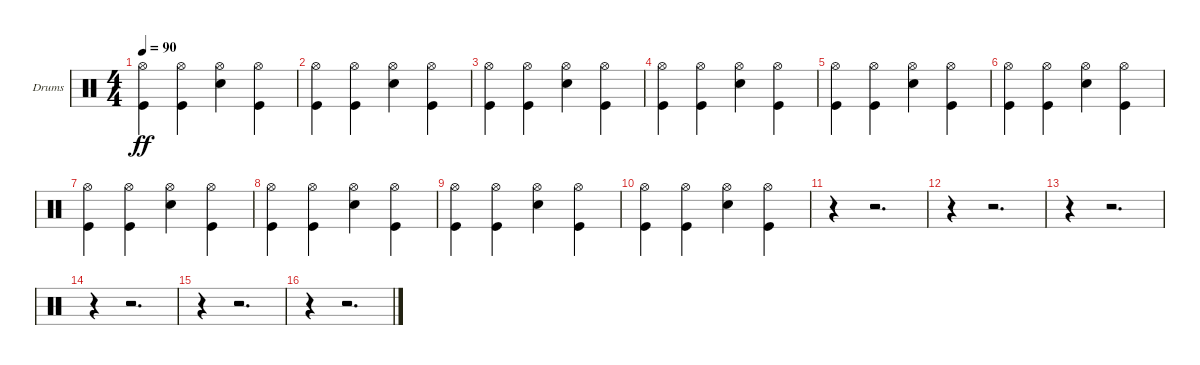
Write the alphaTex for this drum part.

\bracketExtendMode groupsimilarinstruments
\firstSystemTrackNameOrientation horizontal
\otherSystemsTrackNameOrientation horizontal
\track ("Барабаны" "Drums") {instrument percussion}
\staff {score}
\articulation defaults
\ts (4 4)
\tempo 90
\clef neutral
\ks c
("Hi-Hat (open)" "Kick (hit)").4{dy ff} ("Hi-Hat (open)" "Kick (hit)").4 ("Hi-Hat (open)" "Snare (hit) 2").4 ("Hi-Hat (open)" "Kick (hit)").4 |
("Hi-Hat (open)" "Kick (hit)").4 ("Hi-Hat (open)" "Kick (hit)").4 ("Hi-Hat (open)" "Snare (hit) 2").4 ("Hi-Hat (open)" "Kick (hit)").4 |
("Hi-Hat (open)" "Kick (hit)").4 ("Hi-Hat (open)" "Kick (hit)").4 ("Hi-Hat (open)" "Snare (hit) 2").4 ("Hi-Hat (open)" "Kick (hit)").4 |
("Hi-Hat (open)" "Kick (hit)").4 ("Hi-Hat (open)" "Kick (hit)").4 ("Hi-Hat (open)" "Snare (hit) 2").4 ("Hi-Hat (open)" "Kick (hit)").4 |
("Hi-Hat (open)" "Kick (hit)").4 ("Hi-Hat (open)" "Kick (hit)").4 ("Hi-Hat (open)" "Snare (hit) 2").4 ("Hi-Hat (open)" "Kick (hit)").4 |
("Hi-Hat (open)" "Kick (hit)").4 ("Hi-Hat (open)" "Kick (hit)").4 ("Hi-Hat (open)" "Snare (hit) 2").4 ("Hi-Hat (open)" "Kick (hit)").4 |
("Hi-Hat (open)" "Kick (hit)").4 ("Hi-Hat (open)" "Kick (hit)").4 ("Hi-Hat (open)" "Snare (hit) 2").4 ("Hi-Hat (open)" "Kick (hit)").4 |
("Hi-Hat (open)" "Kick (hit)").4 ("Hi-Hat (open)" "Kick (hit)").4 ("Hi-Hat (open)" "Snare (hit) 2").4 ("Hi-Hat (open)" "Kick (hit)").4 |
("Hi-Hat (open)" "Kick (hit)").4 ("Hi-Hat (open)" "Kick (hit)").4 ("Hi-Hat (open)" "Snare (hit) 2").4 ("Hi-Hat (open)" "Kick (hit)").4 |
("Hi-Hat (open)" "Kick (hit)").4 ("Hi-Hat (open)" "Kick (hit)").4 ("Hi-Hat (open)" "Snare (hit) 2").4 ("Hi-Hat (open)" "Kick (hit)").4 |
r.4 r.2{d} |
r.4 r.2{d} |
r.4 r.2{d} |
r.4 r.2{d} |
r.4 r.2{d} |
r.4 r.2{d}
